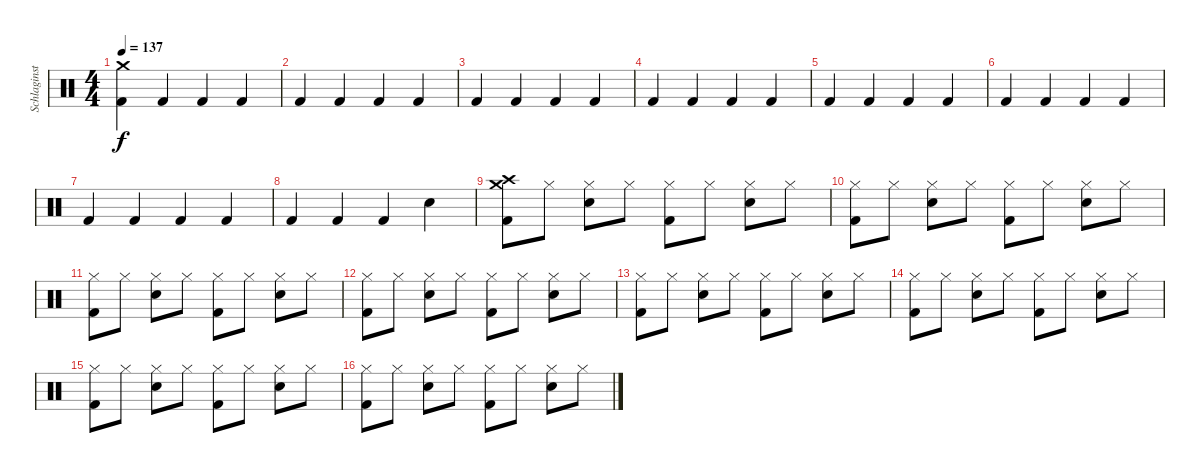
\track ("Schlaginstrumente - Auswahl" "Schlaginst") {instrument percussion}
\staff {score}
\articulation defaults
\ts (4 4)
\tempo 137
\clef neutral
\ks c
("Crash medium (hit)" "Kick (hit) 2").4{dy f} "Kick (hit) 2".4 "Kick (hit) 2".4 "Kick (hit) 2".4 |
"Kick (hit) 2".4 "Kick (hit) 2".4 "Kick (hit) 2".4 "Kick (hit) 2".4 |
"Kick (hit) 2".4 "Kick (hit) 2".4 "Kick (hit) 2".4 "Kick (hit) 2".4 |
"Kick (hit) 2".4 "Kick (hit) 2".4 "Kick (hit) 2".4 "Kick (hit) 2".4 |
"Kick (hit) 2".4 "Kick (hit) 2".4 "Kick (hit) 2".4 "Kick (hit) 2".4 |
"Kick (hit) 2".4 "Kick (hit) 2".4 "Kick (hit) 2".4 "Kick (hit) 2".4 |
"Kick (hit) 2".4 "Kick (hit) 2".4 "Kick (hit) 2".4 "Kick (hit) 2".4 |
"Kick (hit) 2".4 "Kick (hit) 2".4 "Kick (hit) 2".4 "Electric Snare (hit)".4 |
("Crash medium (hit)" "Crash high (hit)" "Kick (hit) 2").8 "Hi-Hat (closed)".8 ("Hi-Hat (closed)" "Electric Snare (hit)").8 "Hi-Hat (closed)".8 ("Hi-Hat (closed)" "Kick (hit) 2").8 "Hi-Hat (closed)".8 ("Hi-Hat (closed)" "Electric Snare (hit)").8 "Hi-Hat (closed)".8 |
("Hi-Hat (closed)" "Kick (hit) 2").8 "Hi-Hat (closed)".8 ("Hi-Hat (closed)" "Electric Snare (hit)").8 "Hi-Hat (closed)".8 ("Hi-Hat (closed)" "Kick (hit) 2").8 "Hi-Hat (closed)".8 ("Hi-Hat (closed)" "Electric Snare (hit)").8 "Hi-Hat (closed)".8 |
("Hi-Hat (closed)" "Kick (hit) 2").8 "Hi-Hat (closed)".8 ("Hi-Hat (closed)" "Electric Snare (hit)").8 "Hi-Hat (closed)".8 ("Hi-Hat (closed)" "Kick (hit) 2").8 "Hi-Hat (closed)".8 ("Hi-Hat (closed)" "Electric Snare (hit)").8 "Hi-Hat (closed)".8 |
("Hi-Hat (closed)" "Kick (hit) 2").8 "Hi-Hat (closed)".8 ("Hi-Hat (closed)" "Electric Snare (hit)").8 "Hi-Hat (closed)".8 ("Hi-Hat (closed)" "Kick (hit) 2").8 "Hi-Hat (closed)".8 ("Hi-Hat (closed)" "Electric Snare (hit)").8 "Hi-Hat (closed)".8 |
("Hi-Hat (closed)" "Kick (hit) 2").8 "Hi-Hat (closed)".8 ("Hi-Hat (closed)" "Electric Snare (hit)").8 "Hi-Hat (closed)".8 ("Hi-Hat (closed)" "Kick (hit) 2").8 "Hi-Hat (closed)".8 ("Hi-Hat (closed)" "Electric Snare (hit)").8 "Hi-Hat (closed)".8 |
("Hi-Hat (closed)" "Kick (hit) 2").8 "Hi-Hat (closed)".8 ("Hi-Hat (closed)" "Electric Snare (hit)").8 "Hi-Hat (closed)".8 ("Hi-Hat (closed)" "Kick (hit) 2").8 "Hi-Hat (closed)".8 ("Hi-Hat (closed)" "Electric Snare (hit)").8 "Hi-Hat (closed)".8 |
("Hi-Hat (closed)" "Kick (hit) 2").8 "Hi-Hat (closed)".8 ("Hi-Hat (closed)" "Electric Snare (hit)").8 "Hi-Hat (closed)".8 ("Hi-Hat (closed)" "Kick (hit) 2").8 "Hi-Hat (closed)".8 ("Hi-Hat (closed)" "Electric Snare (hit)").8 "Hi-Hat (closed)".8 |
("Hi-Hat (closed)" "Kick (hit) 2").8 "Hi-Hat (closed)".8 ("Hi-Hat (closed)" "Electric Snare (hit)").8 "Hi-Hat (closed)".8 ("Hi-Hat (closed)" "Kick (hit) 2").8 "Hi-Hat (closed)".8 ("Hi-Hat (closed)" "Electric Snare (hit)").8 "Hi-Hat (closed)".8
